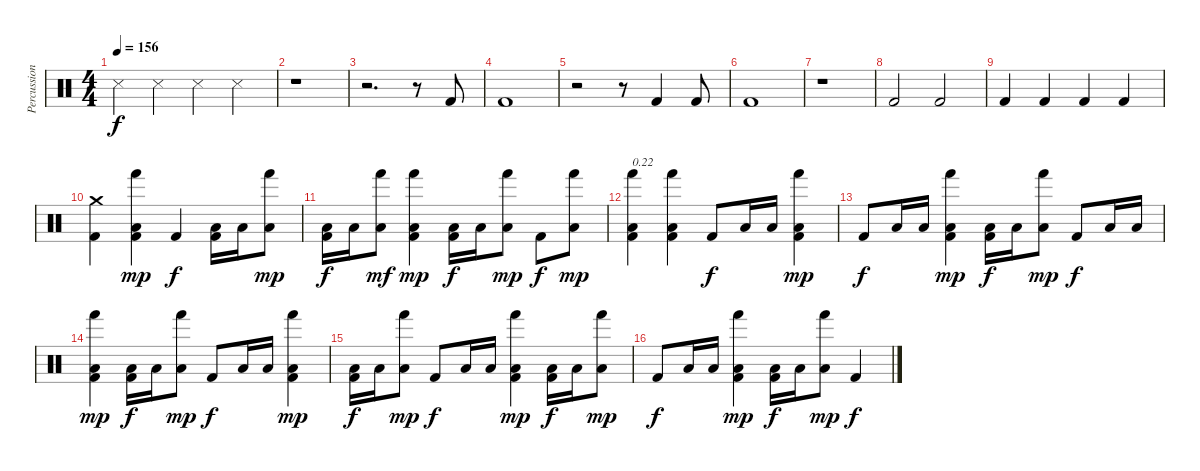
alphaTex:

\track ("Percussions" "Percussion") {instrument percussion}
\staff {score}
\articulation defaults
\ts (4 4)
\tempo 156
\clef neutral
\ks c "Metronome (hit)".4{dy f} "Metronome (hit)".4 "Metronome (hit)".4 "Metronome (hit)".4
|
r.1 |
r.2{d} r.8 "Kick (hit) 2".8 |
"Kick (hit) 2".1 |
r.2 r.8 "Kick (hit) 2".4 "Kick (hit) 2".8 |
"Kick (hit) 2".1 |
r.1 |
"Kick (hit) 2".2 "Kick (hit) 2".2 |
"Kick (hit) 2".4 "Kick (hit) 2".4 "Kick (hit) 2".4 "Kick (hit) 2".4 |
("Kick (hit) 2" "Crash medium (hit)").4 ("Kick (hit) 2" "Low Floor Tom (hit)" "Hand (hit)").4{dy mp} "Kick (hit) 2".4{dy f} ("Kick (hit) 2" "Low Tom (hit)").16 "Low Tom (hit)".16 ("Low Floor Tom (hit)" "Hand (hit)").8{dy mp} |
("Kick (hit) 2" "Low Tom (hit)").16{dy f} "Low Tom (hit)".16 ("Low Floor Tom (hit)" "Hand (hit)").8{dy mf} ("Kick (hit) 2" "Low Floor Tom (hit)" "Hand (hit)").4{dy mp} ("Kick (hit) 2" "Low Tom (hit)").16{dy f} "Low Tom (hit)".16 ("Low Floor Tom (hit)" "Hand (hit)").8{dy mp} "Kick (hit) 2".8{dy f} ("Low Floor Tom (hit)" "Hand (hit)").8{dy mp} |
("Kick (hit) 2" "Low Floor Tom (hit)" "Hand (hit)").4{txt "0.22"} ("Kick (hit) 2" "Low Floor Tom (hit)" "Hand (hit)").4 "Kick (hit) 2".8{dy f} "Low Tom (hit)".16 "Low Tom (hit)".16 ("Kick (hit) 2" "Low Floor Tom (hit)" "Hand (hit)").4{dy mp} |
"Kick (hit) 2".8{dy f} "Low Tom (hit)".16 "Low Tom (hit)".16 ("Kick (hit) 2" "Low Floor Tom (hit)" "Hand (hit)").4{dy mp} ("Kick (hit) 2" "Low Tom (hit)").16{dy f} "Low Tom (hit)".16 ("Low Floor Tom (hit)" "Hand (hit)").8{dy mp} "Kick (hit) 2".8{dy f} "Low Tom (hit)".16 "Low Tom (hit)".16 |
("Kick (hit) 2" "Low Floor Tom (hit)" "Hand (hit)").4{dy mp} ("Kick (hit) 2" "Low Tom (hit)").16{dy f} "Low Tom (hit)".16 ("Low Floor Tom (hit)" "Hand (hit)").8{dy mp} "Kick (hit) 2".8{dy f} "Low Tom (hit)".16 "Low Tom (hit)".16 ("Kick (hit) 2" "Low Floor Tom (hit)" "Hand (hit)").4{dy mp} |
("Kick (hit) 2" "Low Tom (hit)").16{dy f} "Low Tom (hit)".16 ("Low Floor Tom (hit)" "Hand (hit)").8{dy mp} "Kick (hit) 2".8{dy f} "Low Tom (hit)".16 "Low Tom (hit)".16 ("Kick (hit) 2" "Low Floor Tom (hit)" "Hand (hit)").4{dy mp} ("Kick (hit) 2" "Low Tom (hit)").16{dy f} "Low Tom (hit)".16 ("Low Floor Tom (hit)" "Hand (hit)").8{dy mp} |
"Kick (hit) 2".8{dy f} "Low Tom (hit)".16 "Low Tom (hit)".16 ("Kick (hit) 2" "Low Floor Tom (hit)" "Hand (hit)").4{dy mp} ("Kick (hit) 2" "Low Tom (hit)").16{dy f} "Low Tom (hit)".16 ("Low Floor Tom (hit)" "Hand (hit)").8{dy mp} "Kick (hit) 2".4{dy f}
